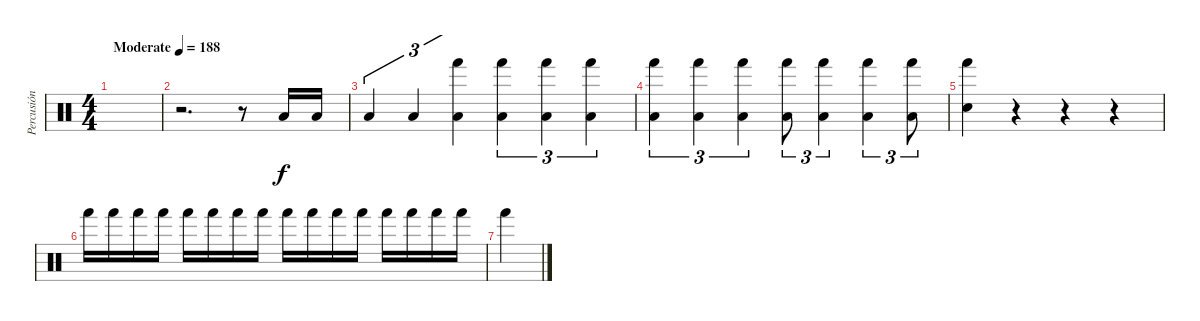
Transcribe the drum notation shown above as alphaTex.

\track ("Percusión" "Percusión") {instrument percussion}
\staff {score}
\articulation defaults
\ts (4 4)
\tempo (188 "Moderate")
\clef neutral
\ks c
|
r.2{d} r.8 "Low Floor Tom (hit)".16 "Low Floor Tom (hit)".16 |
"Low Floor Tom (hit)".4{tu (3 2)} "Low Floor Tom (hit)".4{tu (3 2)} ("Hand (hit)" "Low Floor Tom (hit)").4{tu (3 2)} ("Hand (hit)" "Low Floor Tom (hit)").4{tu (3 2)} ("Hand (hit)" "Low Floor Tom (hit)").4{tu (3 2)} ("Hand (hit)" "Low Floor Tom (hit)").4{tu (3 2)} |
("Hand (hit)" "Low Floor Tom (hit)").4{tu (3 2)} ("Hand (hit)" "Low Floor Tom (hit)").4{tu (3 2)} ("Hand (hit)" "Low Floor Tom (hit)").4{tu (3 2)} ("Hand (hit)" "Low Floor Tom (hit)").8{tu (3 2)} ("Hand (hit)" "Low Floor Tom (hit)").4{tu (3 2)} ("Hand (hit)" "Low Floor Tom (hit)").4{tu (3 2)} ("Hand (hit)" "Low Floor Tom (hit)").8{tu (3 2)} |
("Hand (hit)" "Snare (hit)").4 r.4 r.4 r.4 |
"Hand (hit)".16 "Hand (hit)".16 "Hand (hit)".16 "Hand (hit)".16 "Hand (hit)".16 "Hand (hit)".16 "Hand (hit)".16 "Hand (hit)".16 "Hand (hit)".16 "Hand (hit)".16 "Hand (hit)".16 "Hand (hit)".16 "Hand (hit)".16 "Hand (hit)".16 "Hand (hit)".16 "Hand (hit)".16 |
"Hand (hit)".4
